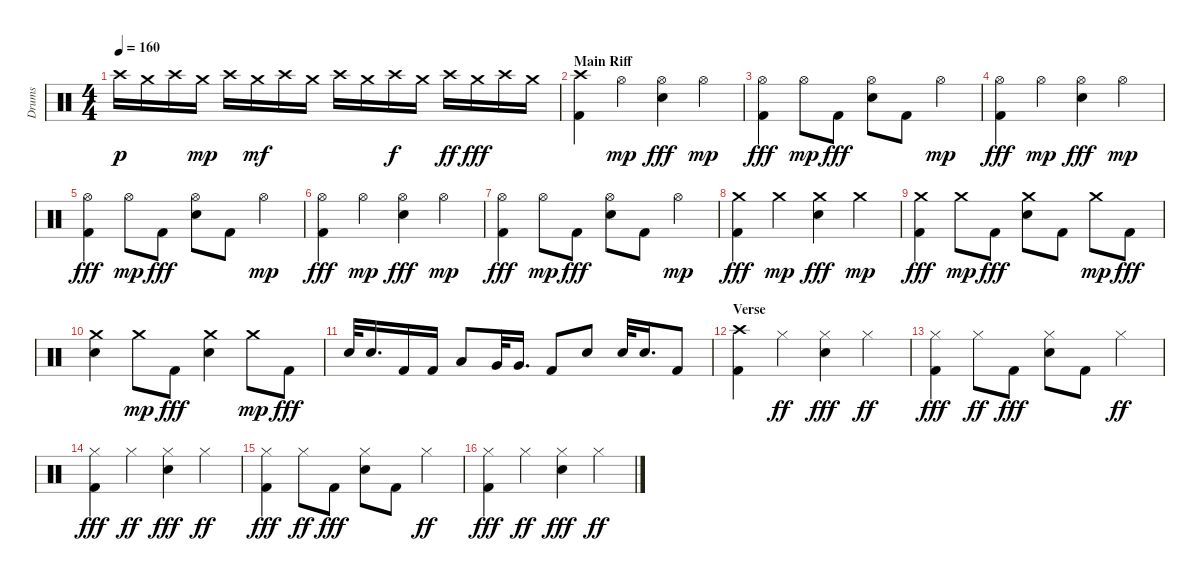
\track ("Drums" "Drums") {instrument percussion}
\staff {score}
\articulation defaults
\ts (4 4)
\tempo 160
\clef neutral
\ks aminor "Crash high (hit)".16{dy p} "Crash medium (hit)".16 "Crash high (hit)".16 "Crash medium (hit)".16{dy mp} "Crash high (hit)".16 "Crash medium (hit)".16{dy mf} "Crash high (hit)".16 "Crash medium (hit)".16 "Crash high (hit)".16 "Crash medium (hit)".16 "Crash high (hit)".16{dy f} "Crash medium (hit)".16 "Crash high (hit)".16{dy ff} "Crash medium (hit)".16{dy fff} "Crash high (hit)".16 "Crash medium (hit)".16
|
\section ("" "Main Riff")
("Kick (hit) 2" "Crash high (hit)").4 "Hi-Hat (open)".4{dy mp} ("Hi-Hat (open)" "Snare (hit) 2").4{dy fff} "Hi-Hat (open)".4{dy mp} |
("Hi-Hat (open)" "Kick (hit) 2").4{dy fff} "Hi-Hat (open)".8{dy mp} "Kick (hit) 2".8{dy fff} ("Snare (hit) 2" "Hi-Hat (open)").8 "Kick (hit) 2".8 "Hi-Hat (open)".4{dy mp} |
("Kick (hit) 2" "Hi-Hat (open)").4{dy fff} "Hi-Hat (open)".4{dy mp} ("Hi-Hat (open)" "Snare (hit) 2").4{dy fff} "Hi-Hat (open)".4{dy mp} |
("Hi-Hat (open)" "Kick (hit) 2").4{dy fff} "Hi-Hat (open)".8{dy mp} "Kick (hit) 2".8{dy fff} ("Snare (hit) 2" "Hi-Hat (open)").8 "Kick (hit) 2".8 "Hi-Hat (open)".4{dy mp} |
("Kick (hit) 2" "Hi-Hat (open)").4{dy fff} "Hi-Hat (open)".4{dy mp} ("Hi-Hat (open)" "Snare (hit) 2").4{dy fff} "Hi-Hat (open)".4{dy mp} |
("Kick (hit) 2" "Hi-Hat (open)").4{dy fff} "Hi-Hat (open)".8{dy mp} "Kick (hit) 2".8{dy fff} ("Hi-Hat (open)" "Snare (hit) 2").8 "Kick (hit) 2".8 "Hi-Hat (open)".4{dy mp} |
("Kick (hit) 2" "Crash medium (hit)").4{dy fff} "Crash medium (hit)".4{dy mp} ("Snare (hit) 2" "Crash medium (hit)").4{dy fff} "Crash medium (hit)".4{dy mp} |
("Crash medium (hit)" "Kick (hit) 2").4{dy fff} "Crash medium (hit)".8{dy mp} "Kick (hit) 2".8{dy fff} ("Crash medium (hit)" "Snare (hit) 2").8 "Kick (hit) 2".8 "Crash medium (hit)".8{dy mp} "Kick (hit) 2".8{dy fff} |
("Crash medium (hit)" "Snare (hit) 2").4 "Crash medium (hit)".8{dy mp} "Kick (hit) 2".8{dy fff} ("Snare (hit) 2" "Crash medium (hit)").4 "Crash medium (hit)".8{dy mp} "Kick (hit) 2".8{dy fff} |
"Snare (hit) 2".32 "Snare (hit) 2".16{d} "Kick (hit) 2".16 "Kick (hit) 2".16 "Low Tom (hit)".8 "Very Low Tom (hit)".32 "Very Low Tom (hit)".16{d} "Kick (hit) 2".8 "Snare (hit) 2".8 "Snare (hit) 2".32 "Snare (hit) 2".16{d} "Kick (hit) 2".8 |
\section ("" "Verse")
("Kick (hit) 2" "Crash high (hit)").4 "Hi-Hat (closed)".4{dy ff} ("Snare (hit) 2" "Hi-Hat (closed)").4{dy fff} "Hi-Hat (closed)".4{dy ff} |
("Kick (hit) 2" "Hi-Hat (closed)").4{dy fff} "Hi-Hat (closed)".8{dy ff} "Kick (hit) 2".8{dy fff} ("Snare (hit) 2" "Hi-Hat (closed)").8 "Kick (hit) 2".8 "Hi-Hat (closed)".4{dy ff} |
("Kick (hit) 2" "Hi-Hat (closed)").4{dy fff} "Hi-Hat (closed)".4{dy ff} ("Hi-Hat (closed)" "Snare (hit) 2").4{dy fff} "Hi-Hat (closed)".4{dy ff} |
("Hi-Hat (closed)" "Kick (hit) 2").4{dy fff} "Hi-Hat (closed)".8{dy ff} "Kick (hit) 2".8{dy fff} ("Snare (hit) 2" "Hi-Hat (closed)").8 "Kick (hit) 2".8 "Hi-Hat (closed)".4{dy ff} |
("Kick (hit) 2" "Hi-Hat (closed)").4{dy fff} "Hi-Hat (closed)".4{dy ff} ("Snare (hit) 2" "Hi-Hat (closed)").4{dy fff} "Hi-Hat (closed)".4{dy ff}
